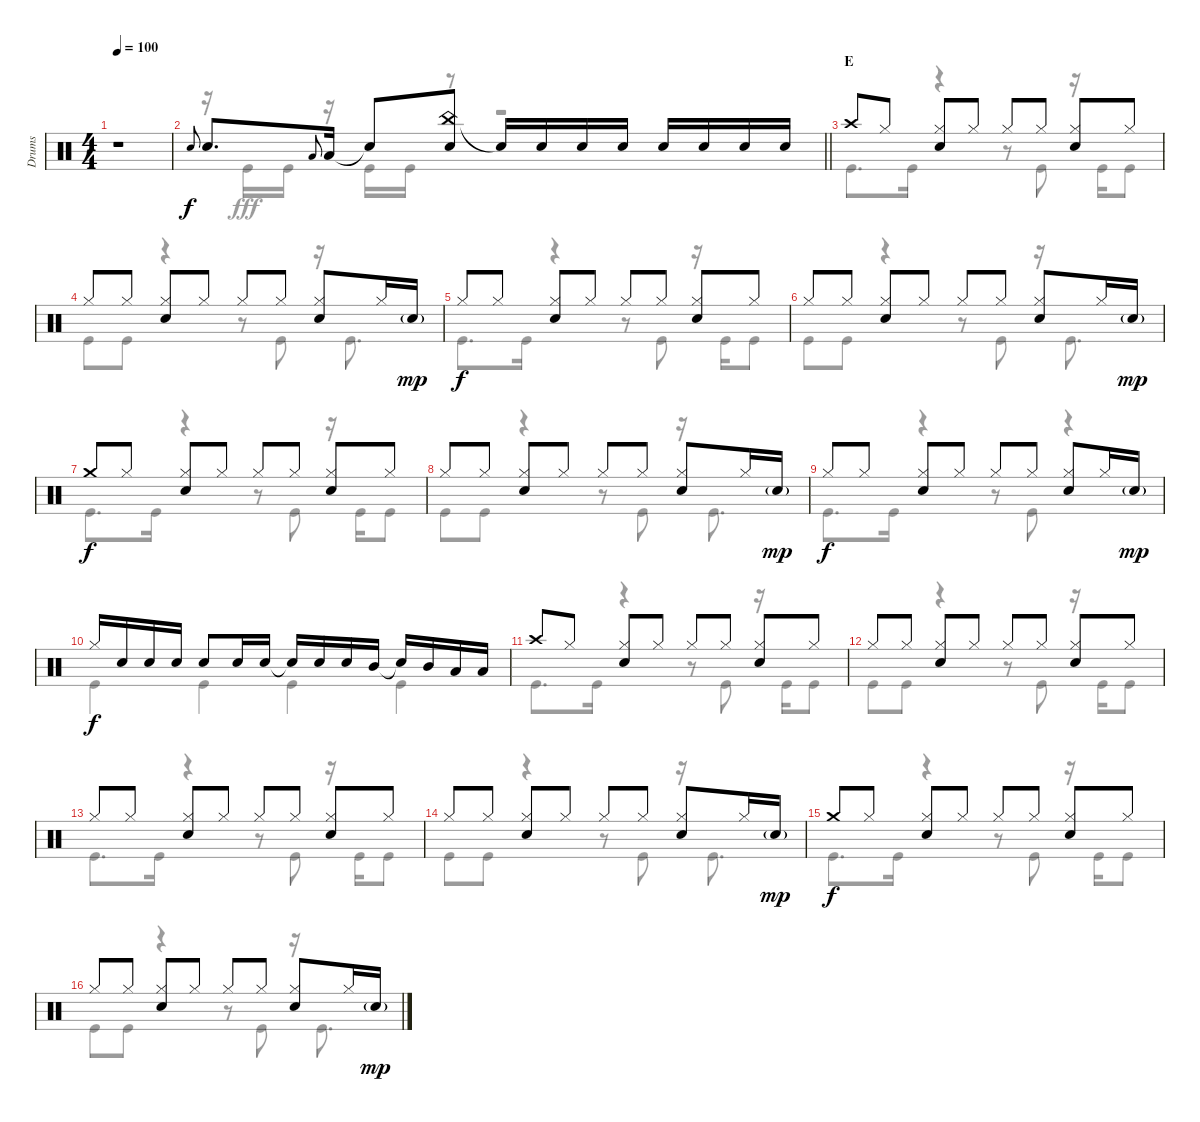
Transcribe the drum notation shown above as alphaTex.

\track ("Drums" "Drums") {instrument percussion}
\staff {score}
\articulation defaults
\voice
\ts (4 4)
\tempo 100
\clef neutral
\ks c
r.1{dy f} |
\barLineRight lightlight "Snare (hit) 2".8{gr onbeat} "Snare (hit) 2".8{d} "Low Tom (hit)".8{gr onbeat} "Low Tom (hit)".16 "Snare (hit)"{t}.8
("China (hit)" "Snare (hit) 2").8 "Snare (hit)"{t}.16 "Snare (hit) 2".16 "Snare (hit) 2".16 "Snare (hit) 2".16 "Snare (hit) 2".16 "Snare (hit) 2".16 "Snare (hit) 2".16 "Snare (hit) 2".16 |
\section ("" "E")
"Crash high (hit)".8 "Hi-Hat (closed)".8 ("Hi-Hat (closed)" "Snare (hit) 2").8 "Hi-Hat (closed)".8 "Hi-Hat (closed)".8 "Hi-Hat (closed)".8 ("Hi-Hat (closed)" "Snare (hit) 2").8 "Hi-Hat (closed)".8 |
"Hi-Hat (closed)".8 "Hi-Hat (closed)".8 ("Hi-Hat (closed)" "Snare (hit) 2").8 "Hi-Hat (closed)".8 "Hi-Hat (closed)".8 "Hi-Hat (closed)".8 ("Hi-Hat (closed)" "Snare (hit) 2").8 "Hi-Hat (closed)".16 "Snare (hit) 2"{g}.16{dy mp} |
"Hi-Hat (closed)".8{dy f} "Hi-Hat (closed)".8 ("Hi-Hat (closed)" "Snare (hit) 2").8 "Hi-Hat (closed)".8 "Hi-Hat (closed)".8 "Hi-Hat (closed)".8 ("Hi-Hat (closed)" "Snare (hit) 2").8 "Hi-Hat (closed)".8 |
"Hi-Hat (closed)".8 "Hi-Hat (closed)".8 ("Hi-Hat (closed)" "Snare (hit) 2").8 "Hi-Hat (closed)".8 "Hi-Hat (closed)".8 "Hi-Hat (closed)".8 ("Hi-Hat (closed)" "Snare (hit) 2").8 "Hi-Hat (closed)".16 "Snare (hit) 2"{g}.16{dy mp} |
"Crash medium (hit)".8{dy f} "Hi-Hat (closed)".8 ("Hi-Hat (closed)" "Snare (hit) 2").8 "Hi-Hat (closed)".8 "Hi-Hat (closed)".8 "Hi-Hat (closed)".8 ("Hi-Hat (closed)" "Snare (hit) 2").8 "Hi-Hat (closed)".8 |
"Hi-Hat (closed)".8 "Hi-Hat (closed)".8 ("Hi-Hat (closed)" "Snare (hit) 2").8 "Hi-Hat (closed)".8 "Hi-Hat (closed)".8 "Hi-Hat (closed)".8 ("Hi-Hat (closed)" "Snare (hit) 2").8 "Hi-Hat (closed)".16 "Snare (hit) 2"{g}.16{dy mp} |
"Hi-Hat (closed)".8{dy f} "Hi-Hat (closed)".8 ("Hi-Hat (closed)" "Snare (hit) 2").8 "Hi-Hat (closed)".8 "Hi-Hat (closed)".8 "Hi-Hat (closed)".8 ("Hi-Hat (closed)" "Snare (hit) 2").8 "Hi-Hat (closed)".16 "Snare (hit) 2"{g}.16{dy mp} |
"Hi-Hat (closed)".16{dy f} "Snare (hit) 2".16 "Snare (hit) 2".16 "Snare (hit) 2".16 "Snare (hit) 2".8 "Snare (hit) 2".16 "Snare (hit) 2".16 "Snare (hit) 2"{t}.16 "Snare (hit) 2".16 "Snare (hit) 2".16 "Mid Tom (hit)".16 "Snare (hit)"{t}.16 "Mid Tom (hit)".16 "Low Tom (hit)".16 "Low Tom (hit)".16 |
"Crash high (hit)".8 "Hi-Hat (closed)".8 ("Hi-Hat (closed)" "Snare (hit) 2").8 "Hi-Hat (closed)".8 "Hi-Hat (closed)".8 "Hi-Hat (closed)".8 ("Hi-Hat (closed)" "Snare (hit) 2").8 "Hi-Hat (closed)".8 |
"Hi-Hat (closed)".8 "Hi-Hat (closed)".8 ("Hi-Hat (closed)" "Snare (hit) 2").8 "Hi-Hat (closed)".8 "Hi-Hat (closed)".8 "Hi-Hat (closed)".8 ("Hi-Hat (closed)" "Snare (hit) 2").8 "Hi-Hat (closed)".8 |
"Hi-Hat (closed)".8 "Hi-Hat (closed)".8 ("Hi-Hat (closed)" "Snare (hit) 2").8 "Hi-Hat (closed)".8 "Hi-Hat (closed)".8 "Hi-Hat (closed)".8 ("Hi-Hat (closed)" "Snare (hit) 2").8 "Hi-Hat (closed)".8 |
"Hi-Hat (closed)".8 "Hi-Hat (closed)".8 ("Hi-Hat (closed)" "Snare (hit) 2").8 "Hi-Hat (closed)".8 "Hi-Hat (closed)".8 "Hi-Hat (closed)".8 ("Hi-Hat (closed)" "Snare (hit) 2").8 "Hi-Hat (closed)".16 "Snare (hit) 2"{g}.16{dy mp} |
"Crash medium (hit)".8{dy f} "Hi-Hat (closed)".8 ("Hi-Hat (closed)" "Snare (hit) 2").8 "Hi-Hat (closed)".8 "Hi-Hat (closed)".8 "Hi-Hat (closed)".8 ("Hi-Hat (closed)" "Snare (hit) 2").8 "Hi-Hat (closed)".8 |
"Hi-Hat (closed)".8 "Hi-Hat (closed)".8 ("Hi-Hat (closed)" "Snare (hit) 2").8 "Hi-Hat (closed)".8 "Hi-Hat (closed)".8 "Hi-Hat (closed)".8 ("Hi-Hat (closed)" "Snare (hit) 2").8 "Hi-Hat (closed)".16 "Snare (hit) 2"{g}.16{dy mp}
\voice
\clef neutral
\ottava regular
\simile none
\ks c
r.1{dy fff} |
\barLineRight lightlight
r.16 "Kick (hit)".16 "Kick (hit)".16 r.16 "Kick (hit)".16 "Kick (hit)".16 r.8 r.2 |
"Kick (hit)".8{d} "Kick (hit)".16 r.4 r.8 "Kick (hit)".8 r.16 "Kick (hit)".16 "Kick (hit)".8 |
"Kick (hit)".8 "Kick (hit)".8 r.4 r.8 "Kick (hit)".8 r.16 "Kick (hit)".8{d} |
"Kick (hit)".8{d} "Kick (hit)".16 r.4 r.8 "Kick (hit)".8 r.16 "Kick (hit)".16 "Kick (hit)".8 |
"Kick (hit)".8 "Kick (hit)".8 r.4 r.8 "Kick (hit)".8 r.16 "Kick (hit)".8{d} |
"Kick (hit)".8{d} "Kick (hit)".16 r.4 r.8 "Kick (hit)".8 r.16 "Kick (hit)".16 "Kick (hit)".8 |
"Kick (hit)".8 "Kick (hit)".8 r.4 r.8 "Kick (hit)".8 r.16 "Kick (hit)".8{d} |
"Kick (hit)".8{d} "Kick (hit)".16 r.4 r.8 "Kick (hit)".8 r.4 |
"Kick (hit)".4 "Kick (hit)".4 "Kick (hit)".4 "Kick (hit)".4 |
"Kick (hit)".8{d} "Kick (hit)".16 r.4 r.8 "Kick (hit)".8 r.16 "Kick (hit)".16 "Kick (hit)".8 |
"Kick (hit)".8 "Kick (hit)".8 r.4 r.8 "Kick (hit)".8 r.16 "Kick (hit)".16 "Kick (hit)".8 |
"Kick (hit)".8{d} "Kick (hit)".16 r.4 r.8 "Kick (hit)".8 r.16 "Kick (hit)".16 "Kick (hit)".8 |
"Kick (hit)".8 "Kick (hit)".8 r.4 r.8 "Kick (hit)".8 r.16 "Kick (hit)".8{d} |
"Kick (hit)".8{d} "Kick (hit)".16 r.4 r.8 "Kick (hit)".8 r.16 "Kick (hit)".16 "Kick (hit)".8 |
"Kick (hit)".8 "Kick (hit)".8 r.4 r.8 "Kick (hit)".8 r.16 "Kick (hit)".8{d}
